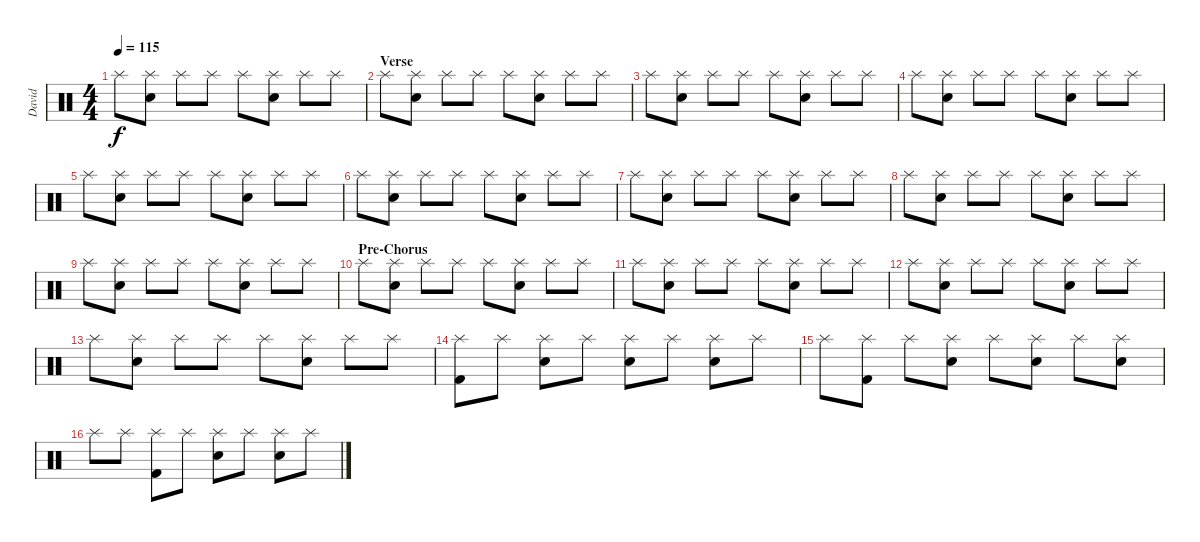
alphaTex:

\track ("David" "David") {instrument percussion}
\staff {score}
\articulation defaults
\ts (4 4)
\tempo 115
\clef neutral
\ks c "Splash (hit)".8{dy f}
("Splash (hit)" "Electric Snare (hit)").8 "Splash (hit)".8 "Splash (hit)".8 "Splash (hit)".8 ("Splash (hit)" "Electric Snare (hit)").8 "Splash (hit)".8 "Splash (hit)".8 |
\section ("" "Verse")
"Splash (hit)".8 ("Splash (hit)" "Electric Snare (hit)").8 "Splash (hit)".8 "Splash (hit)".8 "Splash (hit)".8 ("Splash (hit)" "Electric Snare (hit)").8 "Splash (hit)".8 "Splash (hit)".8 |
"Splash (hit)".8 ("Splash (hit)" "Electric Snare (hit)").8 "Splash (hit)".8 "Splash (hit)".8 "Splash (hit)".8 ("Splash (hit)" "Electric Snare (hit)").8 "Splash (hit)".8 "Splash (hit)".8 |
"Splash (hit)".8 ("Splash (hit)" "Electric Snare (hit)").8 "Splash (hit)".8 "Splash (hit)".8 "Splash (hit)".8 ("Splash (hit)" "Electric Snare (hit)").8 "Splash (hit)".8 "Splash (hit)".8 |
"Splash (hit)".8 ("Splash (hit)" "Electric Snare (hit)").8 "Splash (hit)".8 "Splash (hit)".8 "Splash (hit)".8 ("Splash (hit)" "Electric Snare (hit)").8 "Splash (hit)".8 "Splash (hit)".8 |
"Splash (hit)".8 ("Splash (hit)" "Electric Snare (hit)").8 "Splash (hit)".8 "Splash (hit)".8 "Splash (hit)".8 ("Splash (hit)" "Electric Snare (hit)").8 "Splash (hit)".8 "Splash (hit)".8 |
"Splash (hit)".8 ("Splash (hit)" "Electric Snare (hit)").8 "Splash (hit)".8 "Splash (hit)".8 "Splash (hit)".8 ("Splash (hit)" "Electric Snare (hit)").8 "Splash (hit)".8 "Splash (hit)".8 |
"Splash (hit)".8 ("Splash (hit)" "Electric Snare (hit)").8 "Splash (hit)".8 "Splash (hit)".8 "Splash (hit)".8 ("Splash (hit)" "Electric Snare (hit)").8 "Splash (hit)".8 "Splash (hit)".8 |
"Splash (hit)".8 ("Splash (hit)" "Electric Snare (hit)").8 "Splash (hit)".8 "Splash (hit)".8 "Splash (hit)".8 ("Splash (hit)" "Electric Snare (hit)").8 "Splash (hit)".8 "Splash (hit)".8 |
\section ("" "Pre-Chorus")
"Splash (hit)".8 ("Splash (hit)" "Electric Snare (hit)").8 "Splash (hit)".8 "Splash (hit)".8 "Splash (hit)".8 ("Splash (hit)" "Electric Snare (hit)").8 "Splash (hit)".8 "Splash (hit)".8 |
"Splash (hit)".8 ("Splash (hit)" "Electric Snare (hit)").8 "Splash (hit)".8 "Splash (hit)".8 "Splash (hit)".8 ("Splash (hit)" "Electric Snare (hit)").8 "Splash (hit)".8 "Splash (hit)".8 |
"Splash (hit)".8 ("Splash (hit)" "Electric Snare (hit)").8 "Splash (hit)".8 "Splash (hit)".8 "Splash (hit)".8 ("Splash (hit)" "Electric Snare (hit)").8 "Splash (hit)".8 "Splash (hit)".8 |
"Splash (hit)".8 ("Splash (hit)" "Electric Snare (hit)").8 "Splash (hit)".8 "Splash (hit)".8 "Splash (hit)".8 ("Splash (hit)" "Electric Snare (hit)").8 "Splash (hit)".8 "Splash (hit)".8 |
("Splash (hit)" "Kick (hit) 2").8 "Splash (hit)".8 ("Splash (hit)" "Electric Snare (hit)").8 "Splash (hit)".8 ("Splash (hit)" "Electric Snare (hit)").8 "Splash (hit)".8 ("Splash (hit)" "Electric Snare (hit)").8 "Splash (hit)".8 |
"Splash (hit)".8 ("Splash (hit)" "Kick (hit) 2").8 "Splash (hit)".8 ("Splash (hit)" "Electric Snare (hit)").8 "Splash (hit)".8 ("Splash (hit)" "Electric Snare (hit)").8 "Splash (hit)".8 ("Splash (hit)" "Electric Snare (hit)").8 |
"Splash (hit)".8 "Splash (hit)".8 ("Splash (hit)" "Kick (hit) 2").8 "Splash (hit)".8 ("Splash (hit)" "Electric Snare (hit)").8 "Splash (hit)".8 ("Splash (hit)" "Electric Snare (hit)").8 "Splash (hit)".8
